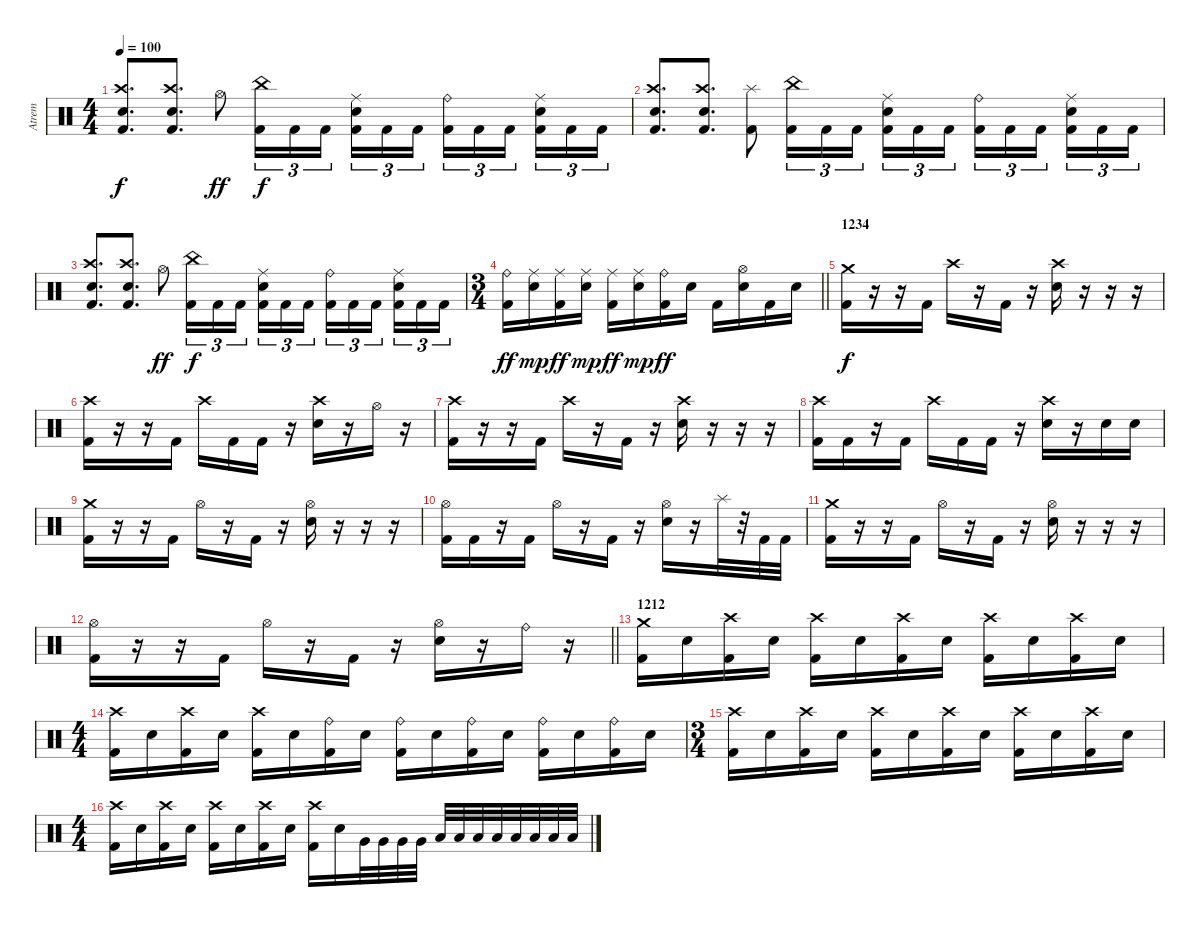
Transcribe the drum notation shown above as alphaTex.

\track ("Atrem" "Atrem") {instrument percussion}
\staff {score}
\articulation defaults
\ts (4 4)
\tempo 100
\clef neutral
\ks c
("Kick (hit) 2" "Crash high (hit)" "Electric Snare (hit)").8{d dy f} ("Kick (hit) 2" "Crash high (hit)" "Electric Snare (hit)").8{d} "Hi-Hat (open)".8{dy ff} ("Kick (hit) 2" "China (hit)").16{tu (3 2) dy f} "Kick (hit) 2".16{tu (3 2)} "Kick (hit) 2".16{tu (3 2) beam splitsecondary} ("Kick (hit) 2" "Electric Snare (hit)" "Ride (middle)").16{tu (3 2)} "Kick (hit) 2".16{tu (3 2)} "Kick (hit) 2".16{tu (3 2)} ("Kick (hit) 2" "Ride (bell)").16{tu (3 2)} "Kick (hit) 2".16{tu (3 2)} "Kick (hit) 2".16{tu (3 2) beam splitsecondary} ("Kick (hit) 2" "Electric Snare (hit)" "Ride (middle)").16{tu (3 2)} "Kick (hit) 2".16{tu (3 2)} "Kick (hit) 2".16{tu (3 2)} |
("Kick (hit) 2" "Crash high (hit)" "Electric Snare (hit)").8{d} ("Kick (hit) 2" "Crash high (hit)" "Electric Snare (hit)").8{d} ("Kick (hit) 2" "Splash (hit)").8 ("Kick (hit) 2" "China (hit)").16{tu (3 2)} "Kick (hit) 2".16{tu (3 2)} "Kick (hit) 2".16{tu (3 2) beam splitsecondary} ("Kick (hit) 2" "Electric Snare (hit)" "Ride (middle)").16{tu (3 2)} "Kick (hit) 2".16{tu (3 2)} "Kick (hit) 2".16{tu (3 2)} ("Kick (hit) 2" "Ride (bell)").16{tu (3 2)} "Kick (hit) 2".16{tu (3 2)} "Kick (hit) 2".16{tu (3 2) beam splitsecondary} ("Kick (hit) 2" "Electric Snare (hit)" "Ride (middle)").16{tu (3 2)} "Kick (hit) 2".16{tu (3 2)} "Kick (hit) 2".16{tu (3 2)} |
("Kick (hit) 2" "Crash high (hit)" "Electric Snare (hit)").8{d} ("Kick (hit) 2" "Crash high (hit)" "Electric Snare (hit)").8{d} "Hi-Hat (open)".8{dy ff} ("Kick (hit) 2" "China (hit)").16{tu (3 2) dy f} "Kick (hit) 2".16{tu (3 2)} "Kick (hit) 2".16{tu (3 2) beam splitsecondary} ("Kick (hit) 2" "Electric Snare (hit)" "Ride (middle)").16{tu (3 2)} "Kick (hit) 2".16{tu (3 2)} "Kick (hit) 2".16{tu (3 2)} ("Kick (hit) 2" "Ride (bell)").16{tu (3 2)} "Kick (hit) 2".16{tu (3 2)} "Kick (hit) 2".16{tu (3 2) beam splitsecondary} ("Kick (hit) 2" "Electric Snare (hit)" "Ride (middle)").16{tu (3 2)} "Kick (hit) 2".16{tu (3 2)} "Kick (hit) 2".16{tu (3 2)} |
\ts (3 4)
\barLineRight lightlight
("Kick (hit) 2" "Ride (bell)").16{dy ff} ("Electric Snare (hit)" "Ride (middle)").16{dy mp} ("Kick (hit) 2" "Ride (middle)").16{dy ff} ("Electric Snare (hit)" "Ride (middle)").16{dy mp} ("Kick (hit) 2" "Ride (middle)").16{dy ff} ("Electric Snare (hit)" "Ride (middle)").16{dy mp} ("Kick (hit) 2" "Ride (bell)").16{dy ff} "Electric Snare (hit)".16 "Kick (hit) 2".16 ("Electric Snare (hit)" "Hi-Hat (open)").16 "Kick (hit) 2".16 "Electric Snare (hit)".16 |
\section ("" "1234")
("Kick (hit) 2" "Crash medium (hit)").16{dy f} r.16 r.16 "Kick (hit) 2".16 "Crash high (hit)".16 r.16 "Kick (hit) 2".16 r.16 ("Crash high (hit)" "Electric Snare (hit)").16 r.16 r.16 r.16 |
("Crash high (hit)" "Kick (hit) 2").16 r.16 r.16 "Kick (hit) 2".16 "Crash high (hit)".16 "Kick (hit) 2".16 "Kick (hit) 2".16 r.16 ("Crash high (hit)" "Electric Snare (hit)").16 r.16 "Hi-Hat (open)".16 r.16 |
("Crash high (hit)" "Kick (hit) 2").16 r.16 r.16 "Kick (hit) 2".16 "Crash high (hit)".16 r.16 "Kick (hit) 2".16 r.16 ("Crash high (hit)" "Electric Snare (hit)").16 r.16 r.16 r.16 |
("Crash high (hit)" "Kick (hit) 2").16 "Kick (hit) 2".16 r.16 "Kick (hit) 2".16 "Crash high (hit)".16 "Kick (hit) 2".16 "Kick (hit) 2".16 r.16 ("Crash high (hit)" "Electric Snare (hit)").16 r.16 "Electric Snare (hit)".16 "Electric Snare (hit)".16 |
("Crash medium (hit)" "Kick (hit) 2").16 r.16 r.16 "Kick (hit) 2".16 "Hi-Hat (open)".16 r.16 "Kick (hit) 2".16 r.16 ("Hi-Hat (open)" "Electric Snare (hit)").16 r.16 r.16 r.16 |
("Hi-Hat (open)" "Kick (hit) 2").16 "Kick (hit) 2".16 r.16 "Kick (hit) 2".16 "Hi-Hat (open)".16 r.16 "Kick (hit) 2".16 r.16 ("Hi-Hat (open)" "Electric Snare (hit)").16 r.16 "Splash (hit)".32 r.32 "Kick (hit) 2".32 "Kick (hit) 2".32 |
("Crash medium (hit)" "Kick (hit) 2").16 r.16 r.16 "Kick (hit) 2".16 "Hi-Hat (open)".16 r.16 "Kick (hit) 2".16 r.16 ("Hi-Hat (open)" "Electric Snare (hit)").16 r.16 r.16 r.16 |
\barLineRight lightlight
("Hi-Hat (open)" "Kick (hit) 2").16 r.16 r.16 "Kick (hit) 2".16 "Hi-Hat (open)".16 r.16 "Kick (hit) 2".16 r.16 ("Hi-Hat (open)" "Electric Snare (hit)").16 r.16 "Ride (bell)".16 r.16 |
\section ("" "1212")
("Kick (hit) 2" "Crash medium (hit)").16 "Electric Snare (hit)".16 ("Crash high (hit)" "Kick (hit) 2").16 "Electric Snare (hit)".16 ("Crash high (hit)" "Kick (hit) 2").16 "Electric Snare (hit)".16 ("Crash high (hit)" "Kick (hit) 2").16 "Electric Snare (hit)".16 ("Crash high (hit)" "Kick (hit) 2").16 "Electric Snare (hit)".16 ("Crash high (hit)" "Kick (hit) 2").16 "Electric Snare (hit)".16 |
\ts (4 4)
("Crash high (hit)" "Kick (hit) 2").16 "Electric Snare (hit)".16 ("Crash high (hit)" "Kick (hit) 2").16 "Electric Snare (hit)".16 ("Crash high (hit)" "Kick (hit) 2").16 "Electric Snare (hit)".16 ("Ride (bell)" "Kick (hit) 2").16 "Electric Snare (hit)".16 ("Ride (bell)" "Kick (hit) 2").16 "Electric Snare (hit)".16 ("Ride (bell)" "Kick (hit) 2").16 "Electric Snare (hit)".16 ("Ride (bell)" "Kick (hit) 2").16 "Electric Snare (hit)".16 ("Ride (bell)" "Kick (hit) 2").16 "Electric Snare (hit)".16 |
\ts (3 4)
("Kick (hit) 2" "Crash high (hit)").16 "Electric Snare (hit)".16 ("Crash high (hit)" "Kick (hit) 2").16 "Electric Snare (hit)".16 ("Crash high (hit)" "Kick (hit) 2").16 "Electric Snare (hit)".16 ("Crash high (hit)" "Kick (hit) 2").16 "Electric Snare (hit)".16 ("Crash high (hit)" "Kick (hit) 2").16 "Electric Snare (hit)".16 ("Crash high (hit)" "Kick (hit) 2").16 "Electric Snare (hit)".16 |
\ts (4 4)
("Crash high (hit)" "Kick (hit) 2").16 "Electric Snare (hit)".16 ("Crash high (hit)" "Kick (hit) 2").16 "Electric Snare (hit)".16 ("Crash high (hit)" "Kick (hit) 2").16 "Electric Snare (hit)".16 ("Crash high (hit)" "Kick (hit) 2").16 "Electric Snare (hit)".16 ("Crash high (hit)" "Kick (hit) 2").16 "Electric Snare (hit)".16 "Very Low Tom (hit)".32 "Very Low Tom (hit)".32 "Very Low Tom (hit)".32 "Very Low Tom (hit)".32 "Low Tom (hit)".32 "Low Tom (hit)".32 "Low Tom (hit)".32 "Low Tom (hit)".32 "Low Floor Tom (hit)".32 "Low Floor Tom (hit)".32 "Low Floor Tom (hit)".32 "Low Floor Tom (hit)".32
